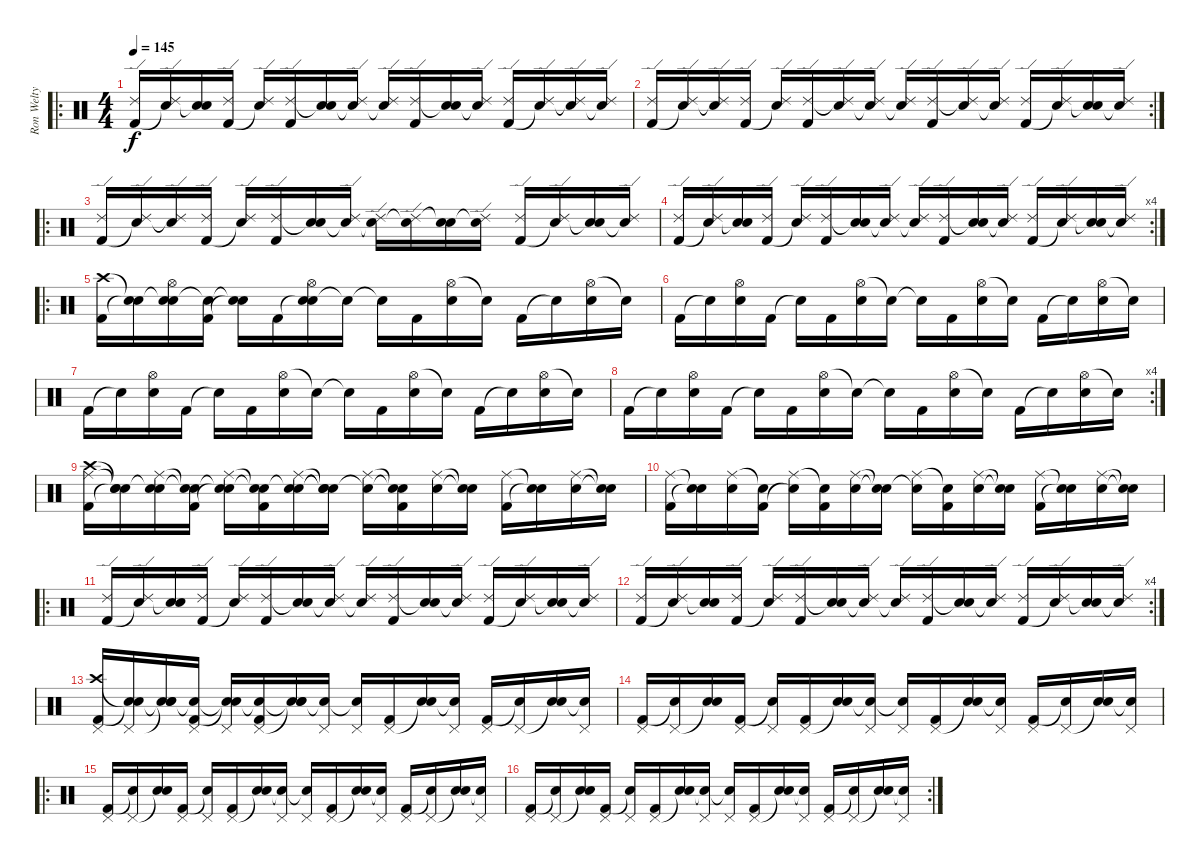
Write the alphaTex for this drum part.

\track ("Ron Welty" "Ron Welty") {instrument percussion}
\staff {score}
\articulation defaults
\ro
\ts (4 4)
\tempo 145
\clef neutral
\ks c
("Ride (edge) 2" "Kick (hit) 2").16{dy f} ("Ride (edge) 2" "Snare (hit)"{t}).16 ("Snare (hit)"{t} "Electric Snare (hit)").16 ("Ride (edge) 2" "Kick (hit) 2").16 ("Ride (edge) 2" "Snare (hit)"{t}).16 ("Ride (edge) 2" "Kick (hit) 2").16 ("Snare (hit)"{t} "Electric Snare (hit)").16 ("Ride (edge) 2" "Snare (hit)"{t}).16 ("Ride (edge) 2" "Snare (hit)"{t}).16 ("Ride (edge) 2" "Kick (hit) 2").16 ("Snare (hit)"{t} "Electric Snare (hit)").16 ("Ride (edge) 2" "Snare (hit)"{t}).16 ("Ride (edge) 2" "Kick (hit) 2").16 ("Ride (edge) 2" "Snare (hit)"{t}).16 ("Ride (edge) 2"{t} "Electric Snare (hit)").16 ("Ride (edge) 2" "Snare (hit)"{t}).16 |
\rc 2
("Ride (edge) 2" "Kick (hit) 2").16 ("Ride (edge) 2" "Snare (hit)"{t}).16 ("Ride (edge) 2"{t} "Electric Snare (hit)").16 ("Ride (edge) 2" "Kick (hit) 2").16 ("Ride (edge) 2" "Snare (hit)"{t}).16 ("Ride (edge) 2" "Kick (hit) 2").16 ("Ride (edge) 2"{t} "Electric Snare (hit)").16 ("Ride (edge) 2" "Snare (hit)"{t}).16 ("Ride (edge) 2" "Snare (hit)"{t}).16 ("Ride (edge) 2" "Kick (hit) 2").16 ("Ride (edge) 2"{t} "Electric Snare (hit)").16 ("Ride (edge) 2" "Snare (hit)"{t}).16 ("Ride (edge) 2" "Kick (hit) 2").16 ("Ride (edge) 2" "Snare (hit)"{t}).16 ("Snare (hit)"{t} "Electric Snare (hit)").16 ("Ride (edge) 2" "Snare (hit)"{t}).16 |
\ro
("Ride (edge) 2" "Kick (hit) 2").16 ("Ride (edge) 2" "Snare (hit)"{t}).16 ("Ride (edge) 2"{t} "Electric Snare (hit)").16 ("Ride (edge) 2" "Kick (hit) 2").16 ("Ride (edge) 2" "Snare (hit)"{t}).16 ("Ride (edge) 2" "Kick (hit) 2").16 ("Snare (hit)"{t} "Electric Snare (hit)").16 ("Ride (edge) 2" "Snare (hit)"{t}).16 ("Ride (edge) 2" "Snare (hit)"{t}).16 ("Ride (edge) 2" "Snare (hit)"{t}).16 ("Snare (hit)"{t} "Electric Snare (hit)").16 ("Ride (edge) 2" "Snare (hit)"{t}).16 ("Ride (edge) 2" "Kick (hit) 2").16 ("Ride (edge) 2" "Snare (hit)"{t}).16 ("Snare (hit)"{t} "Electric Snare (hit)").16 ("Ride (edge) 2" "Snare (hit)"{t}).16 |
\rc 4
("Ride (edge) 2" "Kick (hit) 2").16 ("Ride (edge) 2" "Snare (hit)"{t}).16 ("Snare (hit)"{t} "Electric Snare (hit)").16 ("Ride (edge) 2" "Kick (hit) 2").16 ("Ride (edge) 2" "Snare (hit)"{t}).16 ("Ride (edge) 2" "Kick (hit) 2").16 ("Snare (hit)"{t} "Electric Snare (hit)").16 ("Ride (edge) 2" "Snare (hit)"{t}).16 ("Ride (edge) 2" "Snare (hit)"{t}).16 ("Ride (edge) 2" "Kick (hit) 2").16 ("Snare (hit)"{t} "Electric Snare (hit)").16 ("Ride (edge) 2" "Snare (hit)"{t}).16 ("Ride (edge) 2" "Kick (hit) 2").16 ("Ride (edge) 2" "Snare (hit)"{t}).16 ("Snare (hit)"{t} "Electric Snare (hit)").16 ("Ride (edge) 2" "Snare (hit)"{t}).16 |
\ro
("Crash high (hit)" "Kick (hit) 2").16 ("Snare (hit)"{t} "Snare (hit)"{t}).16 ("Snare (hit)"{t} "Hi-Hat (open)" "Electric Snare (hit)").16 ("Snare (hit)"{t} "Kick (hit) 2").16 ("Snare (hit)"{t} "Snare (hit)"{t}).16 "Kick (hit) 2".16 ("Snare (hit)"{t} "Hi-Hat (open)" "Electric Snare (hit)").16 "Snare (hit)"{t}.16 "Snare (hit)"{t}.16 "Kick (hit) 2".16 ("Hi-Hat (open)" "Electric Snare (hit)").16 "Snare (hit)"{t}.16 "Kick (hit) 2".16 "Snare (hit)"{t}.16 ("Hi-Hat (open)" "Electric Snare (hit)").16 "Snare (hit)"{t}.16 |
"Kick (hit) 2".16 "Snare (hit)"{t}.16 ("Hi-Hat (open)" "Electric Snare (hit)").16 "Kick (hit) 2".16 "Snare (hit)"{t}.16 "Kick (hit) 2".16 ("Hi-Hat (open)" "Electric Snare (hit)").16 "Snare (hit)"{t}.16 "Snare (hit)"{t}.16 "Kick (hit) 2".16 ("Hi-Hat (open)" "Electric Snare (hit)").16 "Snare (hit)"{t}.16 "Kick (hit) 2".16 "Snare (hit)"{t}.16 ("Hi-Hat (open)" "Electric Snare (hit)").16 "Snare (hit)"{t}.16 |
"Kick (hit) 2".16 "Snare (hit)"{t}.16 ("Hi-Hat (open)" "Electric Snare (hit)").16 "Kick (hit) 2".16 "Snare (hit)"{t}.16 "Kick (hit) 2".16 ("Hi-Hat (open)" "Electric Snare (hit)").16 "Snare (hit)"{t}.16 "Snare (hit)"{t}.16 "Kick (hit) 2".16 ("Hi-Hat (open)" "Electric Snare (hit)").16 "Snare (hit)"{t}.16 "Kick (hit) 2".16 "Snare (hit)"{t}.16 ("Hi-Hat (open)" "Electric Snare (hit)").16 "Snare (hit)"{t}.16 |
\rc 4 "Kick (hit) 2".16 "Snare (hit)"{t}.16
("Hi-Hat (open)" "Electric Snare (hit)").16 "Kick (hit) 2".16 "Snare (hit)"{t}.16 "Kick (hit) 2".16 ("Hi-Hat (open)" "Electric Snare (hit)").16 "Snare (hit)"{t}.16 "Snare (hit)"{t}.16 "Kick (hit) 2".16 ("Hi-Hat (open)" "Electric Snare (hit)").16 "Snare (hit)"{t}.16 "Kick (hit) 2".16 "Snare (hit)"{t}.16 ("Hi-Hat (open)" "Electric Snare (hit)").16 "Snare (hit)"{t}.16 |
("Crash high (hit)" "Ride (middle)" "Kick (hit) 2").16 ("Snare (hit)"{t} "Snare (hit)"{t} "Snare (hit)"{t}).16 ("Snare (hit)"{t} "Ride (middle)" "Electric Snare (hit)").16 ("Snare (hit)"{t} "Snare (hit)"{t} "Kick (hit) 2").16 ("Snare (hit)"{t} "Ride (middle)" "Snare (hit)"{t}).16 ("Snare (hit)"{t} "Snare (hit)"{t} "Kick (hit) 2").16 ("Snare (hit)"{t} "Ride (middle)" "Electric Snare (hit)").16 ("Snare (hit)"{t} "Snare (hit)"{t} "Snare (hit)"{t}).16 ("Ride (middle)" "Snare (hit)"{t}).16 ("Snare (hit)"{t} "Snare (hit)"{t} "Kick (hit) 2").16 ("Ride (middle)" "Electric Snare (hit)").16 ("Snare (hit)"{t} "Snare (hit)"{t}).16 ("Ride (middle)" "Kick (hit) 2").16 ("Snare (hit)"{t} "Snare (hit)"{t}).16 ("Ride (middle)" "Electric Snare (hit)").16 ("Snare (hit)"{t} "Snare (hit)"{t}).16 |
("Ride (middle)" "Kick (hit) 2").16 ("Snare (hit)"{t} "Snare (hit)"{t}).16 ("Ride (middle)" "Electric Snare (hit)").16 ("Snare (hit)"{t} "Kick (hit) 2").16 ("Ride (middle)" "Snare (hit)"{t}).16 ("Snare (hit)"{t} "Kick (hit) 2").16 ("Ride (middle)" "Electric Snare (hit)").16 ("Snare (hit)"{t} "Snare (hit)"{t}).16 ("Ride (middle)" "Snare (hit)"{t}).16 ("Snare (hit)"{t} "Kick (hit) 2").16 ("Ride (middle)" "Electric Snare (hit)").16 ("Snare (hit)"{t} "Snare (hit)"{t}).16 ("Ride (middle)" "Kick (hit) 2").16 ("Snare (hit)"{t} "Snare (hit)"{t}).16 ("Ride (middle)" "Electric Snare (hit)").16 ("Snare (hit)"{t} "Snare (hit)"{t}).16 |
\ro
("Ride (edge) 2" "Kick (hit) 2").16 ("Ride (edge) 2" "Snare (hit)"{t}).16 ("Snare (hit)"{t} "Electric Snare (hit)").16 ("Ride (edge) 2" "Kick (hit) 2").16 ("Ride (edge) 2" "Snare (hit)"{t}).16 ("Ride (edge) 2" "Kick (hit) 2").16 ("Snare (hit)"{t} "Electric Snare (hit)").16 ("Ride (edge) 2" "Snare (hit)"{t}).16 ("Ride (edge) 2" "Snare (hit)"{t}).16 ("Ride (edge) 2" "Kick (hit) 2").16 ("Snare (hit)"{t} "Electric Snare (hit)").16 ("Ride (edge) 2" "Snare (hit)"{t}).16 ("Ride (edge) 2" "Kick (hit) 2").16 ("Ride (edge) 2" "Snare (hit)"{t}).16 ("Snare (hit)"{t} "Electric Snare (hit)").16 ("Ride (edge) 2" "Snare (hit)"{t}).16 |
\rc 4
("Ride (edge) 2" "Kick (hit) 2").16 ("Ride (edge) 2" "Snare (hit)"{t}).16 ("Snare (hit)"{t} "Electric Snare (hit)").16 ("Ride (edge) 2" "Kick (hit) 2").16 ("Ride (edge) 2" "Snare (hit)"{t}).16 ("Ride (edge) 2" "Kick (hit) 2").16 ("Snare (hit)"{t} "Electric Snare (hit)").16 ("Ride (edge) 2" "Snare (hit)"{t}).16 ("Ride (edge) 2" "Snare (hit)"{t}).16 ("Ride (edge) 2" "Kick (hit) 2").16 ("Snare (hit)"{t} "Electric Snare (hit)").16 ("Ride (edge) 2" "Snare (hit)"{t}).16 ("Ride (edge) 2" "Kick (hit) 2").16 ("Ride (edge) 2" "Snare (hit)"{t}).16 ("Snare (hit)"{t} "Electric Snare (hit)").16 ("Ride (edge) 2" "Snare (hit)"{t}).16 |
("Crash high (hit)" "Pedal Hi-Hat (hit)" "Kick (hit) 2").16 ("Snare (hit)"{t} "Pedal Hi-Hat (hit)" "Snare (hit)"{t}).16 ("Snare (hit)"{t} "Snare (hit)"{t} "Electric Snare (hit)").16 ("Snare (hit)"{t} "Pedal Hi-Hat (hit)" "Kick (hit) 2").16 ("Snare (hit)"{t} "Pedal Hi-Hat (hit)" "Snare (hit)"{t}).16 ("Snare (hit)"{t} "Pedal Hi-Hat (hit)" "Kick (hit) 2").16 ("Snare (hit)"{t} "Snare (hit)"{t} "Electric Snare (hit)").16 ("Pedal Hi-Hat (hit)" "Snare (hit)"{t}).16 ("Pedal Hi-Hat (hit)" "Snare (hit)"{t}).16 ("Pedal Hi-Hat (hit)" "Kick (hit) 2").16 ("Snare (hit)"{t} "Electric Snare (hit)").16 ("Pedal Hi-Hat (hit)" "Snare (hit)"{t}).16 ("Pedal Hi-Hat (hit)" "Kick (hit) 2").16 ("Pedal Hi-Hat (hit)" "Snare (hit)"{t}).16 ("Snare (hit)"{t} "Electric Snare (hit)").16 ("Pedal Hi-Hat (hit)" "Snare (hit)"{t}).16 |
("Pedal Hi-Hat (hit)" "Kick (hit) 2").16 ("Pedal Hi-Hat (hit)" "Snare (hit)"{t}).16 ("Snare (hit)"{t} "Electric Snare (hit)").16 ("Pedal Hi-Hat (hit)" "Kick (hit) 2").16 ("Pedal Hi-Hat (hit)" "Snare (hit)"{t}).16 ("Pedal Hi-Hat (hit)" "Kick (hit) 2").16 ("Snare (hit)"{t} "Electric Snare (hit)").16 ("Pedal Hi-Hat (hit)" "Snare (hit)"{t}).16 ("Pedal Hi-Hat (hit)" "Snare (hit)"{t}).16 ("Pedal Hi-Hat (hit)" "Kick (hit) 2").16 ("Snare (hit)"{t} "Electric Snare (hit)").16 ("Pedal Hi-Hat (hit)" "Snare (hit)"{t}).16 ("Pedal Hi-Hat (hit)" "Kick (hit) 2").16 ("Pedal Hi-Hat (hit)" "Snare (hit)"{t}).16 ("Snare (hit)"{t} "Electric Snare (hit)").16 ("Pedal Hi-Hat (hit)" "Snare (hit)"{t}).16 |
\ro
("Pedal Hi-Hat (hit)" "Kick (hit) 2").16 ("Pedal Hi-Hat (hit)" "Snare (hit)"{t}).16 ("Snare (hit)"{t} "Electric Snare (hit)").16 ("Pedal Hi-Hat (hit)" "Kick (hit) 2").16 ("Pedal Hi-Hat (hit)" "Snare (hit)"{t}).16 ("Pedal Hi-Hat (hit)" "Kick (hit) 2").16 ("Snare (hit)"{t} "Electric Snare (hit)").16 ("Pedal Hi-Hat (hit)" "Snare (hit)"{t}).16 ("Pedal Hi-Hat (hit)" "Snare (hit)"{t}).16 ("Pedal Hi-Hat (hit)" "Kick (hit) 2").16 ("Snare (hit)"{t} "Electric Snare (hit)").16 ("Pedal Hi-Hat (hit)" "Snare (hit)"{t}).16 ("Pedal Hi-Hat (hit)" "Kick (hit) 2").16 ("Pedal Hi-Hat (hit)" "Snare (hit)"{t}).16 ("Snare (hit)"{t} "Electric Snare (hit)").16 ("Pedal Hi-Hat (hit)" "Snare (hit)"{t}).16 |
\rc 2
("Pedal Hi-Hat (hit)" "Kick (hit) 2").16 ("Pedal Hi-Hat (hit)" "Snare (hit)"{t}).16 ("Snare (hit)"{t} "Electric Snare (hit)").16 ("Pedal Hi-Hat (hit)" "Kick (hit) 2").16 ("Pedal Hi-Hat (hit)" "Snare (hit)"{t}).16 ("Pedal Hi-Hat (hit)" "Kick (hit) 2").16 ("Snare (hit)"{t} "Electric Snare (hit)").16 ("Pedal Hi-Hat (hit)" "Snare (hit)"{t}).16 ("Pedal Hi-Hat (hit)" "Snare (hit)"{t}).16 ("Pedal Hi-Hat (hit)" "Kick (hit) 2").16 ("Snare (hit)"{t} "Electric Snare (hit)").16 ("Pedal Hi-Hat (hit)" "Snare (hit)"{t}).16 ("Pedal Hi-Hat (hit)" "Kick (hit) 2").16 ("Pedal Hi-Hat (hit)" "Snare (hit)"{t}).16 ("Snare (hit)"{t} "Electric Snare (hit)").16 ("Pedal Hi-Hat (hit)" "Snare (hit)"{t}).16
